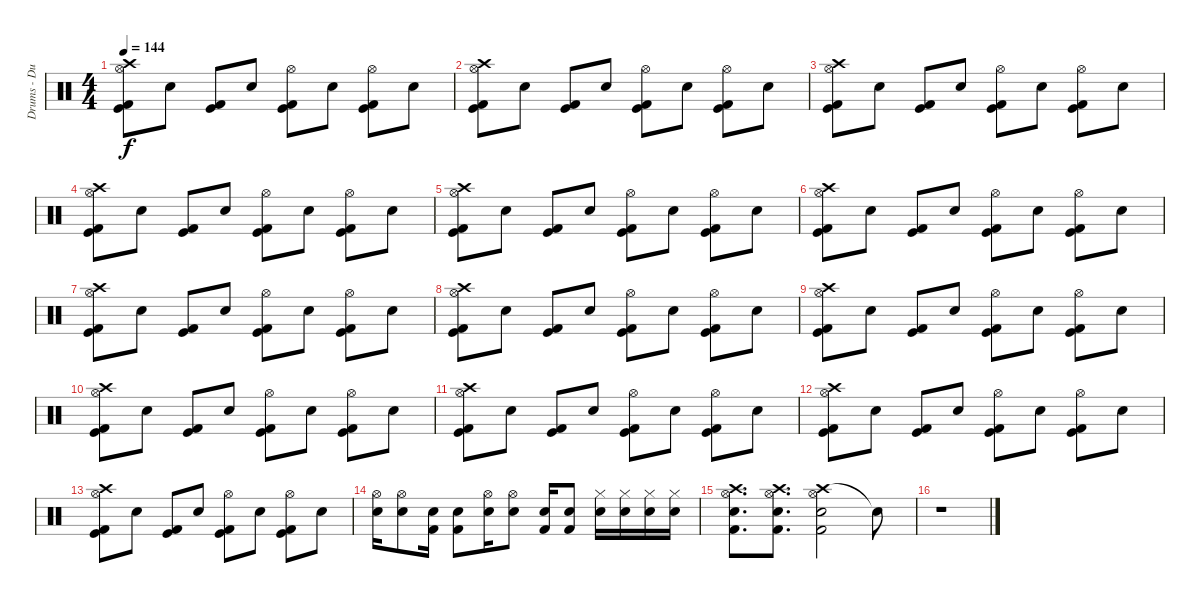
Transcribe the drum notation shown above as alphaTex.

\track ("Drums - Duncan Scott" "Drums - Du") {instrument percussion}
\staff {score}
\articulation defaults
\ts (4 4)
\tempo 144
\clef neutral
\ks c
("Crash high (hit)" "Hi-Hat (open)" "Kick (hit)" "Kick (hit) 2").8{dy f} "Electric Snare (hit)".8 ("Kick (hit)" "Kick (hit) 2").8 "Electric Snare (hit)".8 ("Hi-Hat (open)" "Kick (hit)" "Kick (hit) 2").8 "Electric Snare (hit)".8 ("Hi-Hat (open)" "Kick (hit)" "Kick (hit) 2").8 "Electric Snare (hit)".8 |
("Crash high (hit)" "Hi-Hat (open)" "Kick (hit)" "Kick (hit) 2").8 "Electric Snare (hit)".8 ("Kick (hit)" "Kick (hit) 2").8 "Electric Snare (hit)".8 ("Hi-Hat (open)" "Kick (hit)" "Kick (hit) 2").8 "Electric Snare (hit)".8 ("Hi-Hat (open)" "Kick (hit)" "Kick (hit) 2").8 "Electric Snare (hit)".8 |
("Crash high (hit)" "Hi-Hat (open)" "Kick (hit)" "Kick (hit) 2").8 "Electric Snare (hit)".8 ("Kick (hit)" "Kick (hit) 2").8 "Electric Snare (hit)".8 ("Hi-Hat (open)" "Kick (hit)" "Kick (hit) 2").8 "Electric Snare (hit)".8 ("Hi-Hat (open)" "Kick (hit)" "Kick (hit) 2").8 "Electric Snare (hit)".8 |
("Crash high (hit)" "Hi-Hat (open)" "Kick (hit)" "Kick (hit) 2").8 "Electric Snare (hit)".8 ("Kick (hit)" "Kick (hit) 2").8 "Electric Snare (hit)".8 ("Hi-Hat (open)" "Kick (hit)" "Kick (hit) 2").8 "Electric Snare (hit)".8 ("Hi-Hat (open)" "Kick (hit)" "Kick (hit) 2").8 "Electric Snare (hit)".8 |
("Crash high (hit)" "Hi-Hat (open)" "Kick (hit)" "Kick (hit) 2").8 "Electric Snare (hit)".8 ("Kick (hit)" "Kick (hit) 2").8 "Electric Snare (hit)".8 ("Hi-Hat (open)" "Kick (hit)" "Kick (hit) 2").8 "Electric Snare (hit)".8 ("Hi-Hat (open)" "Kick (hit)" "Kick (hit) 2").8 "Electric Snare (hit)".8 |
("Crash high (hit)" "Hi-Hat (open)" "Kick (hit)" "Kick (hit) 2").8 "Electric Snare (hit)".8 ("Kick (hit)" "Kick (hit) 2").8 "Electric Snare (hit)".8 ("Hi-Hat (open)" "Kick (hit)" "Kick (hit) 2").8 "Electric Snare (hit)".8 ("Hi-Hat (open)" "Kick (hit)" "Kick (hit) 2").8 "Electric Snare (hit)".8 |
("Crash high (hit)" "Hi-Hat (open)" "Kick (hit)" "Kick (hit) 2").8 "Electric Snare (hit)".8 ("Kick (hit)" "Kick (hit) 2").8 "Electric Snare (hit)".8 ("Hi-Hat (open)" "Kick (hit)" "Kick (hit) 2").8 "Electric Snare (hit)".8 ("Hi-Hat (open)" "Kick (hit)" "Kick (hit) 2").8 "Electric Snare (hit)".8 |
("Crash high (hit)" "Hi-Hat (open)" "Kick (hit)" "Kick (hit) 2").8 "Electric Snare (hit)".8 ("Kick (hit)" "Kick (hit) 2").8 "Electric Snare (hit)".8 ("Hi-Hat (open)" "Kick (hit)" "Kick (hit) 2").8 "Electric Snare (hit)".8 ("Hi-Hat (open)" "Kick (hit)" "Kick (hit) 2").8 "Electric Snare (hit)".8 |
("Crash high (hit)" "Hi-Hat (open)" "Kick (hit)" "Kick (hit) 2").8 "Electric Snare (hit)".8 ("Kick (hit)" "Kick (hit) 2").8 "Electric Snare (hit)".8 ("Hi-Hat (open)" "Kick (hit)" "Kick (hit) 2").8 "Electric Snare (hit)".8 ("Hi-Hat (open)" "Kick (hit)" "Kick (hit) 2").8 "Electric Snare (hit)".8 |
("Crash high (hit)" "Hi-Hat (open)" "Kick (hit)" "Kick (hit) 2").8 "Electric Snare (hit)".8 ("Kick (hit)" "Kick (hit) 2").8 "Electric Snare (hit)".8 ("Hi-Hat (open)" "Kick (hit)" "Kick (hit) 2").8 "Electric Snare (hit)".8 ("Hi-Hat (open)" "Kick (hit)" "Kick (hit) 2").8 "Electric Snare (hit)".8 |
("Crash high (hit)" "Hi-Hat (open)" "Kick (hit)" "Kick (hit) 2").8 "Electric Snare (hit)".8 ("Kick (hit)" "Kick (hit) 2").8 "Electric Snare (hit)".8 ("Hi-Hat (open)" "Kick (hit)" "Kick (hit) 2").8 "Electric Snare (hit)".8 ("Hi-Hat (open)" "Kick (hit)" "Kick (hit) 2").8 "Electric Snare (hit)".8 |
("Crash high (hit)" "Hi-Hat (open)" "Kick (hit)" "Kick (hit) 2").8 "Electric Snare (hit)".8 ("Kick (hit)" "Kick (hit) 2").8 "Electric Snare (hit)".8 ("Hi-Hat (open)" "Kick (hit)" "Kick (hit) 2").8 "Electric Snare (hit)".8 ("Hi-Hat (open)" "Kick (hit)" "Kick (hit) 2").8 "Electric Snare (hit)".8 |
("Crash high (hit)" "Hi-Hat (open)" "Kick (hit)" "Kick (hit) 2").8 "Electric Snare (hit)".8 ("Kick (hit)" "Kick (hit) 2").8 "Electric Snare (hit)".8 ("Hi-Hat (open)" "Kick (hit)" "Kick (hit) 2").8 "Electric Snare (hit)".8 ("Hi-Hat (open)" "Kick (hit)" "Kick (hit) 2").8 "Electric Snare (hit)".8 |
("Hi-Hat (open)" "Electric Snare (hit)").16 ("Hi-Hat (open)" "Electric Snare (hit)").8 ("Electric Snare (hit)" "Kick (hit) 2").16 ("Electric Snare (hit)" "Kick (hit) 2").8 ("Hi-Hat (open)" "Electric Snare (hit)").16 ("Hi-Hat (open)" "Electric Snare (hit)").8 ("Electric Snare (hit)" "Kick (hit) 2").16 ("Electric Snare (hit)" "Kick (hit) 2").8 ("Hi-Hat (closed)" "Electric Snare (hit)").16 ("Hi-Hat (closed)" "Electric Snare (hit)").16 ("Hi-Hat (closed)" "Electric Snare (hit)").16 ("Hi-Hat (closed)" "Electric Snare (hit)").16 |
("Crash high (hit)" "Hi-Hat (open)" "Electric Snare (hit)" "Kick (hit) 2").8{d} ("Crash high (hit)" "Hi-Hat (open)" "Electric Snare (hit)" "Kick (hit) 2").8{d} ("Crash high (hit)" "Hi-Hat (open)" "Electric Snare (hit)" "Kick (hit) 2").2 "Snare (hit)"{t}.8 |
r.1
